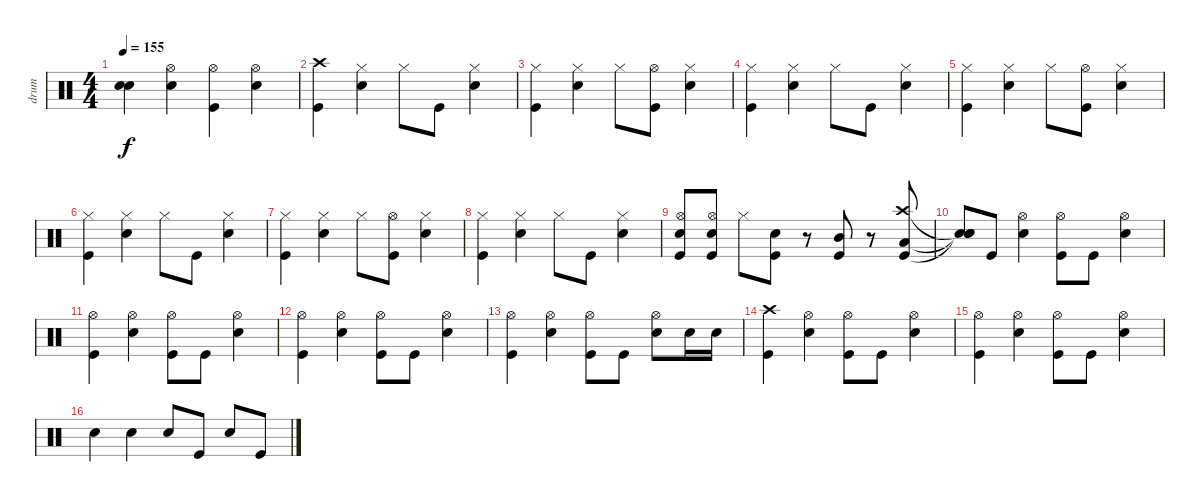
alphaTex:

\track ("drum" "drum") {instrument percussion}
\staff {score}
\articulation defaults
\ts (4 4)
\tempo 155
\clef neutral
\ks c
("Snare (hit)"{t} "Snare (hit)"{t}).4{dy f} ("Hi-Hat (open)" "Snare (hit) 2").4 ("Hi-Hat (open)" "Kick (hit)").4 ("Hi-Hat (open)" "Snare (hit) 2").4 |
("Crash high (hit)" "Kick (hit)").4 ("Hi-Hat (closed)" "Snare (hit) 2").4 "Hi-Hat (closed)".8 "Kick (hit)".8 ("Hi-Hat (closed)" "Snare (hit) 2").4 |
("Hi-Hat (closed)" "Kick (hit)").4 ("Hi-Hat (closed)" "Snare (hit) 2").4 "Hi-Hat (closed)".8 ("Hi-Hat (open)" "Kick (hit)").8 ("Hi-Hat (closed)" "Snare (hit) 2").4 |
("Hi-Hat (closed)" "Kick (hit)").4 ("Hi-Hat (closed)" "Snare (hit) 2").4 "Hi-Hat (closed)".8 "Kick (hit)".8 ("Hi-Hat (closed)" "Snare (hit) 2").4 |
("Hi-Hat (closed)" "Kick (hit)").4 ("Hi-Hat (closed)" "Snare (hit) 2").4 "Hi-Hat (closed)".8 ("Hi-Hat (open)" "Kick (hit)").8 ("Hi-Hat (closed)" "Snare (hit) 2").4 |
("Hi-Hat (closed)" "Kick (hit)").4 ("Hi-Hat (closed)" "Snare (hit) 2").4 "Hi-Hat (closed)".8 "Kick (hit)".8 ("Hi-Hat (closed)" "Snare (hit) 2").4 |
("Hi-Hat (closed)" "Kick (hit)").4 ("Hi-Hat (closed)" "Snare (hit) 2").4 "Hi-Hat (closed)".8 ("Hi-Hat (open)" "Kick (hit)").8 ("Hi-Hat (closed)" "Snare (hit) 2").4 |
("Hi-Hat (closed)" "Kick (hit)").4 ("Hi-Hat (closed)" "Snare (hit) 2").4 "Hi-Hat (closed)".8 "Kick (hit)".8 ("Hi-Hat (closed)" "Snare (hit) 2").4 |
("Hi-Hat (open)" "Snare (hit) 2" "Kick (hit)").8 ("Hi-Hat (open)" "Snare (hit) 2" "Kick (hit)").8 "Hi-Hat (closed)".8{volume 0} ("Snare (hit) 2" "Kick (hit)").8{volume 13} r.8 ("Mid Tom (hit)" "Kick (hit)").8 r.8 ("Crash high (hit)" "Low Tom (hit)" "Kick (hit)").8 |
("Snare (hit)"{t} "Snare (hit)"{t} "Snare (hit)"{t}).8 "Kick (hit)".8 ("Hi-Hat (open)" "Snare (hit) 2").4 ("Hi-Hat (open)" "Kick (hit)").8 "Kick (hit)".8 ("Hi-Hat (open)" "Snare (hit) 2").4 |
("Hi-Hat (open)" "Kick (hit)").4 ("Hi-Hat (open)" "Snare (hit) 2").4 ("Hi-Hat (open)" "Kick (hit)").8 "Kick (hit)".8 ("Hi-Hat (open)" "Snare (hit) 2").4 |
("Hi-Hat (open)" "Kick (hit)").4 ("Hi-Hat (open)" "Snare (hit) 2").4 ("Hi-Hat (open)" "Kick (hit)").8 "Kick (hit)".8 ("Hi-Hat (open)" "Snare (hit) 2").4 |
("Hi-Hat (open)" "Kick (hit)").4 ("Hi-Hat (open)" "Snare (hit) 2").4 ("Hi-Hat (open)" "Kick (hit)").8 "Kick (hit)".8 ("Hi-Hat (open)" "Snare (hit) 2").8 "Snare (hit) 2".16 "Snare (hit) 2".16 |
("Crash high (hit)" "Kick (hit)").4 ("Hi-Hat (open)" "Snare (hit) 2").4 ("Hi-Hat (open)" "Kick (hit)").8 "Kick (hit)".8 ("Hi-Hat (open)" "Snare (hit) 2").4 |
("Hi-Hat (open)" "Kick (hit)").4 ("Hi-Hat (open)" "Snare (hit) 2").4 ("Hi-Hat (open)" "Kick (hit)").8 "Kick (hit)".8 ("Hi-Hat (open)" "Snare (hit) 2").4 |
"Snare (hit) 2".4 "Snare (hit) 2".4 "Snare (hit) 2".8 "Kick (hit)".8 "Snare (hit) 2".8 "Kick (hit)".8
